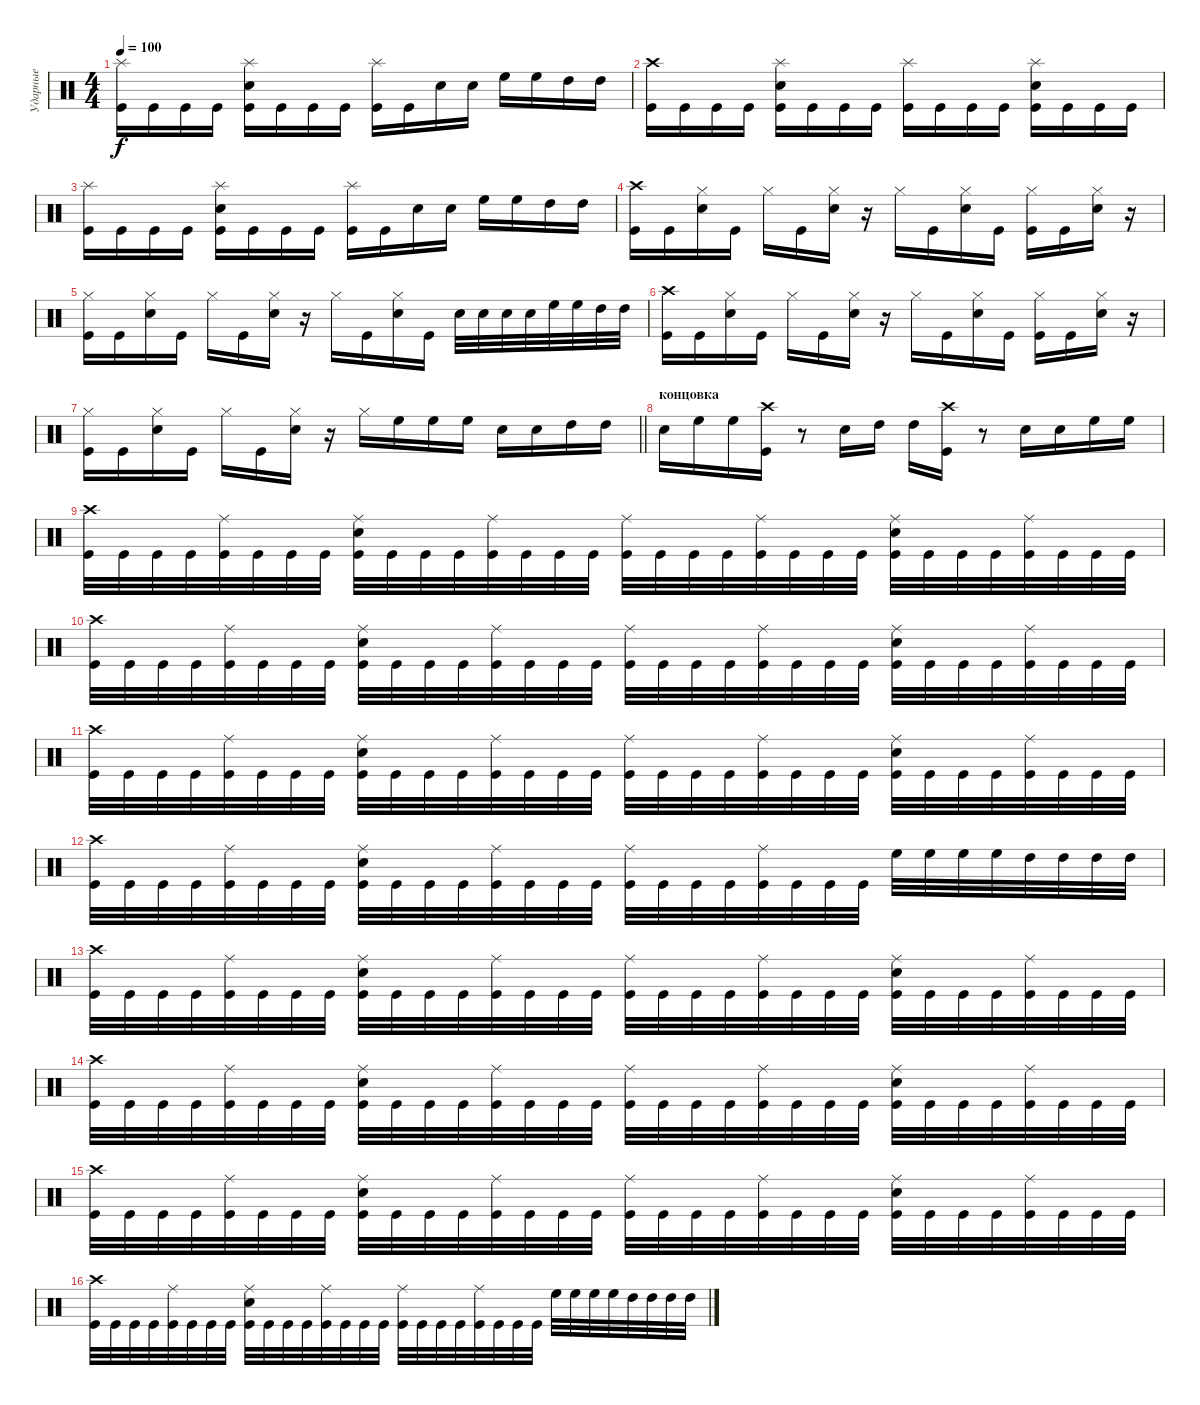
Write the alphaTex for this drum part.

\track ("Ударные" "Ударные") {instrument percussion}
\staff {score}
\articulation defaults
\ts (4 4)
\tempo 100
\clef neutral
\ks c
("Splash (hit)" "Kick (hit)").16{dy f} "Kick (hit)".16 "Kick (hit)".16 "Kick (hit)".16 ("Snare (hit) 2" "Kick (hit)" "Splash (hit)").16 "Kick (hit)".16 "Kick (hit)".16 "Kick (hit)".16 ("Kick (hit)" "Splash (hit)").16 "Kick (hit)".16 "Snare (hit) 2".16 "Snare (hit) 2".16 "High Floor Tom (hit)".16 "High Floor Tom (hit)".16 "High Tom (hit)".16 "High Tom (hit)".16 |
("Crash high (hit)" "Kick (hit)").16 "Kick (hit)".16 "Kick (hit)".16 "Kick (hit)".16 ("Snare (hit) 2" "Kick (hit)" "Splash (hit)").16 "Kick (hit)".16 "Kick (hit)".16 "Kick (hit)".16 ("Kick (hit)" "Splash (hit)").16 "Kick (hit)".16 "Kick (hit)".16 "Kick (hit)".16 ("Snare (hit) 2" "Kick (hit)" "Splash (hit)").16 "Kick (hit)".16 "Kick (hit)".16 "Kick (hit)".16 |
("Splash (hit)" "Kick (hit)").16 "Kick (hit)".16 "Kick (hit)".16 "Kick (hit)".16 ("Snare (hit) 2" "Kick (hit)" "Splash (hit)").16 "Kick (hit)".16 "Kick (hit)".16 "Kick (hit)".16 ("Kick (hit)" "Splash (hit)").16 "Kick (hit)".16 "Snare (hit) 2".16 "Snare (hit) 2".16 "High Floor Tom (hit)".16 "High Floor Tom (hit)".16 "High Tom (hit)".16 "High Tom (hit)".16 |
("Kick (hit)" "Crash high (hit)").16 "Kick (hit)".16 ("Snare (hit) 2" "Hi-Hat (closed)").16 "Kick (hit)".16 "Hi-Hat (closed)".16 "Kick (hit)".16 ("Snare (hit) 2" "Hi-Hat (closed)").16 r.16 "Hi-Hat (closed)".16 "Kick (hit)".16 ("Hi-Hat (closed)" "Snare (hit) 2").16 "Kick (hit)".16 ("Kick (hit)" "Hi-Hat (closed)").16 "Kick (hit)".16 ("Snare (hit) 2" "Hi-Hat (closed)").16 r.16 |
("Kick (hit)" "Hi-Hat (closed)").16 "Kick (hit)".16 ("Snare (hit) 2" "Hi-Hat (closed)").16 "Kick (hit)".16 "Hi-Hat (closed)".16 "Kick (hit)".16 ("Snare (hit) 2" "Hi-Hat (closed)").16 r.16 "Hi-Hat (closed)".16 "Kick (hit)".16 ("Hi-Hat (closed)" "Snare (hit) 2").16 "Kick (hit)".16 "Snare (hit) 2".32 "Snare (hit) 2".32 "Snare (hit) 2".32 "Snare (hit) 2".32 "High Floor Tom (hit)".32 "High Floor Tom (hit)".32 "High Tom (hit)".32 "High Tom (hit)".32 |
("Kick (hit)" "Crash high (hit)").16 "Kick (hit)".16 ("Snare (hit) 2" "Hi-Hat (closed)").16 "Kick (hit)".16 "Hi-Hat (closed)".16 "Kick (hit)".16 ("Snare (hit) 2" "Hi-Hat (closed)").16 r.16 "Hi-Hat (closed)".16 "Kick (hit)".16 ("Hi-Hat (closed)" "Snare (hit) 2").16 "Kick (hit)".16 ("Kick (hit)" "Hi-Hat (closed)").16 "Kick (hit)".16 ("Snare (hit) 2" "Hi-Hat (closed)").16 r.16 |
\barLineRight lightlight
("Kick (hit)" "Hi-Hat (closed)").16 "Kick (hit)".16 ("Snare (hit) 2" "Hi-Hat (closed)").16 "Kick (hit)".16 "Hi-Hat (closed)".16 "Kick (hit)".16 ("Snare (hit) 2" "Hi-Hat (closed)").16 r.16 "Hi-Hat (closed)".16 "High Floor Tom (hit)".16 "High Floor Tom (hit)".16 "High Floor Tom (hit)".16 "Snare (hit) 2".16 "Snare (hit) 2".16 "High Tom (hit)".16 "High Tom (hit)".16 |
\section ("" "концовка")
"Snare (hit) 2".16 "High Floor Tom (hit)".16 "High Floor Tom (hit)".16 ("Kick (hit)" "Crash high (hit)").16 r.8 "Snare (hit) 2".16 "High Tom (hit)".16 "High Tom (hit)".16 ("Kick (hit)" "Crash high (hit)").16 r.8 "Snare (hit) 2".16 "Snare (hit) 2".16 "High Floor Tom (hit)".16 "High Floor Tom (hit)".16 |
("Kick (hit)" "Crash high (hit)").32 "Kick (hit)".32 "Kick (hit)".32 "Kick (hit)".32 ("Kick (hit)" "Ride (middle)").32 "Kick (hit)".32 "Kick (hit)".32 "Kick (hit)".32 ("Kick (hit)" "Snare (hit) 2" "Ride (middle)").32 "Kick (hit)".32 "Kick (hit)".32 "Kick (hit)".32 ("Kick (hit)" "Ride (middle)").32 "Kick (hit)".32 "Kick (hit)".32 "Kick (hit)".32 ("Kick (hit)" "Ride (middle)").32 "Kick (hit)".32 "Kick (hit)".32 "Kick (hit)".32 ("Kick (hit)" "Ride (middle)").32 "Kick (hit)".32 "Kick (hit)".32 "Kick (hit)".32 ("Kick (hit)" "Snare (hit) 2" "Ride (middle)").32 "Kick (hit)".32 "Kick (hit)".32 "Kick (hit)".32 ("Kick (hit)" "Ride (middle)").32 "Kick (hit)".32 "Kick (hit)".32 "Kick (hit)".32 |
("Kick (hit)" "Crash high (hit)").32 "Kick (hit)".32 "Kick (hit)".32 "Kick (hit)".32 ("Kick (hit)" "Ride (middle)").32 "Kick (hit)".32 "Kick (hit)".32 "Kick (hit)".32 ("Kick (hit)" "Snare (hit) 2" "Ride (middle)").32 "Kick (hit)".32 "Kick (hit)".32 "Kick (hit)".32 ("Kick (hit)" "Ride (middle)").32 "Kick (hit)".32 "Kick (hit)".32 "Kick (hit)".32 ("Kick (hit)" "Ride (middle)").32 "Kick (hit)".32 "Kick (hit)".32 "Kick (hit)".32 ("Kick (hit)" "Ride (middle)").32 "Kick (hit)".32 "Kick (hit)".32 "Kick (hit)".32 ("Kick (hit)" "Snare (hit) 2" "Ride (middle)").32 "Kick (hit)".32 "Kick (hit)".32 "Kick (hit)".32 ("Kick (hit)" "Ride (middle)").32 "Kick (hit)".32 "Kick (hit)".32 "Kick (hit)".32 |
("Kick (hit)" "Crash high (hit)").32 "Kick (hit)".32 "Kick (hit)".32 "Kick (hit)".32 ("Kick (hit)" "Ride (middle)").32 "Kick (hit)".32 "Kick (hit)".32 "Kick (hit)".32 ("Kick (hit)" "Snare (hit) 2" "Ride (middle)").32 "Kick (hit)".32 "Kick (hit)".32 "Kick (hit)".32 ("Kick (hit)" "Ride (middle)").32 "Kick (hit)".32 "Kick (hit)".32 "Kick (hit)".32 ("Kick (hit)" "Ride (middle)").32 "Kick (hit)".32 "Kick (hit)".32 "Kick (hit)".32 ("Kick (hit)" "Ride (middle)").32 "Kick (hit)".32 "Kick (hit)".32 "Kick (hit)".32 ("Kick (hit)" "Snare (hit) 2" "Ride (middle)").32 "Kick (hit)".32 "Kick (hit)".32 "Kick (hit)".32 ("Kick (hit)" "Ride (middle)").32 "Kick (hit)".32 "Kick (hit)".32 "Kick (hit)".32 |
("Kick (hit)" "Crash high (hit)").32 "Kick (hit)".32 "Kick (hit)".32 "Kick (hit)".32 ("Kick (hit)" "Ride (middle)").32 "Kick (hit)".32 "Kick (hit)".32 "Kick (hit)".32 ("Kick (hit)" "Snare (hit) 2" "Ride (middle)").32 "Kick (hit)".32 "Kick (hit)".32 "Kick (hit)".32 ("Kick (hit)" "Ride (middle)").32 "Kick (hit)".32 "Kick (hit)".32 "Kick (hit)".32 ("Kick (hit)" "Ride (middle)").32 "Kick (hit)".32 "Kick (hit)".32 "Kick (hit)".32 ("Kick (hit)" "Ride (middle)").32 "Kick (hit)".32 "Kick (hit)".32 "Kick (hit)".32 "High Floor Tom (hit)".32 "High Floor Tom (hit)".32 "High Floor Tom (hit)".32 "High Floor Tom (hit)".32 "High Tom (hit)".32 "High Tom (hit)".32 "High Tom (hit)".32 "High Tom (hit)".32 |
("Kick (hit)" "Crash high (hit)").32 "Kick (hit)".32 "Kick (hit)".32 "Kick (hit)".32 ("Kick (hit)" "Ride (middle)").32 "Kick (hit)".32 "Kick (hit)".32 "Kick (hit)".32 ("Kick (hit)" "Snare (hit) 2" "Ride (middle)").32 "Kick (hit)".32 "Kick (hit)".32 "Kick (hit)".32 ("Kick (hit)" "Ride (middle)").32 "Kick (hit)".32 "Kick (hit)".32 "Kick (hit)".32 ("Kick (hit)" "Ride (middle)").32 "Kick (hit)".32 "Kick (hit)".32 "Kick (hit)".32 ("Kick (hit)" "Ride (middle)").32 "Kick (hit)".32 "Kick (hit)".32 "Kick (hit)".32 ("Kick (hit)" "Snare (hit) 2" "Ride (middle)").32 "Kick (hit)".32 "Kick (hit)".32 "Kick (hit)".32 ("Kick (hit)" "Ride (middle)").32 "Kick (hit)".32 "Kick (hit)".32 "Kick (hit)".32 |
("Kick (hit)" "Crash high (hit)").32 "Kick (hit)".32 "Kick (hit)".32 "Kick (hit)".32 ("Kick (hit)" "Ride (middle)").32 "Kick (hit)".32 "Kick (hit)".32 "Kick (hit)".32 ("Kick (hit)" "Snare (hit) 2" "Ride (middle)").32 "Kick (hit)".32 "Kick (hit)".32 "Kick (hit)".32 ("Kick (hit)" "Ride (middle)").32 "Kick (hit)".32 "Kick (hit)".32 "Kick (hit)".32 ("Kick (hit)" "Ride (middle)").32 "Kick (hit)".32 "Kick (hit)".32 "Kick (hit)".32 ("Kick (hit)" "Ride (middle)").32 "Kick (hit)".32 "Kick (hit)".32 "Kick (hit)".32 ("Kick (hit)" "Snare (hit) 2" "Ride (middle)").32 "Kick (hit)".32 "Kick (hit)".32 "Kick (hit)".32 ("Kick (hit)" "Ride (middle)").32 "Kick (hit)".32 "Kick (hit)".32 "Kick (hit)".32 |
("Kick (hit)" "Crash high (hit)").32 "Kick (hit)".32 "Kick (hit)".32 "Kick (hit)".32 ("Kick (hit)" "Ride (middle)").32 "Kick (hit)".32 "Kick (hit)".32 "Kick (hit)".32 ("Kick (hit)" "Snare (hit) 2" "Ride (middle)").32 "Kick (hit)".32 "Kick (hit)".32 "Kick (hit)".32 ("Kick (hit)" "Ride (middle)").32 "Kick (hit)".32 "Kick (hit)".32 "Kick (hit)".32 ("Kick (hit)" "Ride (middle)").32 "Kick (hit)".32 "Kick (hit)".32 "Kick (hit)".32 ("Kick (hit)" "Ride (middle)").32 "Kick (hit)".32 "Kick (hit)".32 "Kick (hit)".32 ("Kick (hit)" "Snare (hit) 2" "Ride (middle)").32 "Kick (hit)".32 "Kick (hit)".32 "Kick (hit)".32 ("Kick (hit)" "Ride (middle)").32 "Kick (hit)".32 "Kick (hit)".32 "Kick (hit)".32 |
("Kick (hit)" "Crash high (hit)").32 "Kick (hit)".32 "Kick (hit)".32 "Kick (hit)".32 ("Kick (hit)" "Ride (middle)").32 "Kick (hit)".32 "Kick (hit)".32 "Kick (hit)".32 ("Kick (hit)" "Snare (hit) 2" "Ride (middle)").32 "Kick (hit)".32 "Kick (hit)".32 "Kick (hit)".32 ("Kick (hit)" "Ride (middle)").32 "Kick (hit)".32 "Kick (hit)".32 "Kick (hit)".32 ("Kick (hit)" "Ride (middle)").32 "Kick (hit)".32 "Kick (hit)".32 "Kick (hit)".32 ("Kick (hit)" "Ride (middle)").32 "Kick (hit)".32 "Kick (hit)".32 "Kick (hit)".32 "High Floor Tom (hit)".32 "High Floor Tom (hit)".32 "High Floor Tom (hit)".32 "High Floor Tom (hit)".32 "High Tom (hit)".32 "High Tom (hit)".32 "High Tom (hit)".32 "High Tom (hit)".32
